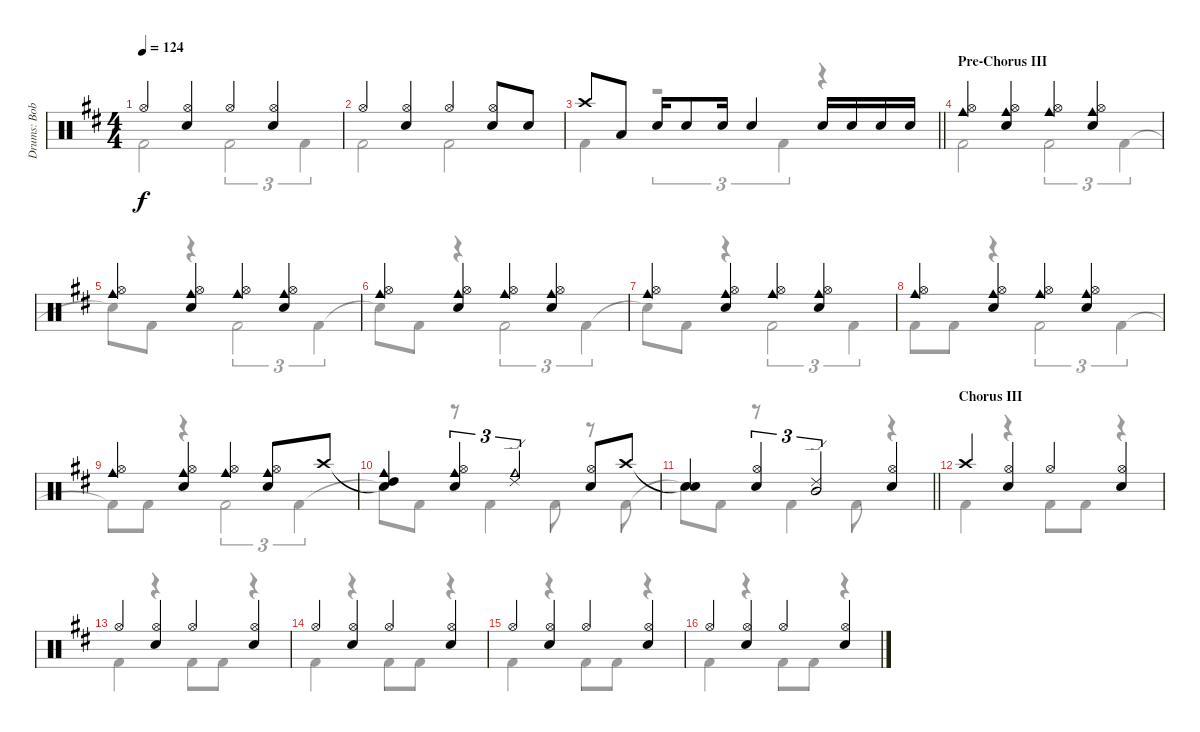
\track ("Drums: Bobby" "Drums: Bob") {instrument percussion}
\staff {score}
\articulation defaults
\voice
\ts (4 4)
\tempo 124
\clef neutral
\ks d "Hi-Hat (open)".4{dy f}
("Hi-Hat (open)" "Snare (hit) 2").4 "Hi-Hat (open)".4 ("Hi-Hat (open)" "Snare (hit) 2").4 |
"Hi-Hat (open)".4 ("Hi-Hat (open)" "Snare (hit) 2").4 "Hi-Hat (open)".4 ("Hi-Hat (open)" "Snare (hit) 2").8 "Snare (hit) 2".8 |
\barLineRight lightlight "Crash high (hit)".8 "Low Tom (hit)".8 "Snare (hit) 2".16 "Snare (hit) 2".8 "Snare (hit) 2".16 "Snare (hit) 2".4 "Snare (hit) 2".16 "Snare (hit) 2".16 "Snare (hit) 2".16 "Snare (hit) 2".16
|
\section ("" "Pre-Chorus III")
("Hi-Hat (open)" "Cowbell medium (hit)").4 ("Hi-Hat (open)" "Snare (hit) 2" "Cowbell medium (hit)").4 ("Hi-Hat (open)" "Cowbell medium (hit)").4 ("Hi-Hat (open)" "Snare (hit) 2" "Cowbell medium (hit)").4 |
("Hi-Hat (open)" "Cowbell medium (hit)").4 ("Hi-Hat (open)" "Snare (hit) 2" "Cowbell medium (hit)").4 ("Hi-Hat (open)" "Cowbell medium (hit)").4 ("Hi-Hat (open)" "Snare (hit) 2" "Cowbell medium (hit)").4 |
("Hi-Hat (open)" "Cowbell medium (hit)").4 ("Hi-Hat (open)" "Snare (hit) 2" "Cowbell medium (hit)").4 ("Hi-Hat (open)" "Cowbell medium (hit)").4 ("Hi-Hat (open)" "Snare (hit) 2" "Cowbell medium (hit)").4 |
("Hi-Hat (open)" "Cowbell medium (hit)").4 ("Hi-Hat (open)" "Snare (hit) 2" "Cowbell medium (hit)").4 ("Hi-Hat (open)" "Cowbell medium (hit)").4 ("Hi-Hat (open)" "Snare (hit) 2" "Cowbell medium (hit)").4 |
("Hi-Hat (open)" "Cowbell medium (hit)").4 ("Hi-Hat (open)" "Snare (hit) 2" "Cowbell medium (hit)").4 ("Hi-Hat (open)" "Cowbell medium (hit)").4 ("Hi-Hat (open)" "Snare (hit) 2" "Cowbell medium (hit)").4 |
("Hi-Hat (open)" "Cowbell medium (hit)").4 ("Hi-Hat (open)" "Snare (hit) 2" "Cowbell medium (hit)").4 ("Hi-Hat (open)" "Cowbell medium (hit)").4 ("Hi-Hat (open)" "Snare (hit) 2" "Cowbell medium (hit)").8 "Crash high (hit)".8 |
("Snare (hit)"{t} "High Tom (hit)" "Cowbell medium (hit)").4 ("Hi-Hat (open)" "Snare (hit) 2" "Cowbell medium (hit)").4{tu (3 2)} ("Ride (edge) 2" "Cowbell medium (hit)").2{tu (3 2)} ("Hi-Hat (open)" "Snare (hit) 2").8 "Crash high (hit)".8 |
\barLineRight lightlight
("Snare (hit)"{t} "Snare (hit) 2").4 ("Hi-Hat (open)" "Snare (hit) 2").4{tu (3 2)} ("Ride (edge) 2" "Mid Tom (hit)").2{tu (3 2)} ("Hi-Hat (open)" "Snare (hit) 2").4 |
\section ("" "Chorus III")
"Crash high (hit)".4 ("Hi-Hat (open)" "Snare (hit) 2").4 "Hi-Hat (open)".4 ("Hi-Hat (open)" "Snare (hit) 2").4 |
"Hi-Hat (open)".4 ("Hi-Hat (open)" "Snare (hit) 2").4 "Hi-Hat (open)".4 ("Hi-Hat (open)" "Snare (hit) 2").4 |
"Hi-Hat (open)".4 ("Hi-Hat (open)" "Snare (hit) 2").4 "Hi-Hat (open)".4 ("Hi-Hat (open)" "Snare (hit) 2").4 |
"Hi-Hat (open)".4 ("Hi-Hat (open)" "Snare (hit) 2").4 "Hi-Hat (open)".4 ("Hi-Hat (open)" "Snare (hit) 2").4 |
"Hi-Hat (open)".4 ("Hi-Hat (open)" "Snare (hit) 2").4 "Hi-Hat (open)".4 ("Hi-Hat (open)" "Snare (hit) 2").4
\voice
\clef neutral
\ottava regular
\simile none
\ks d "Kick (hit) 2".2{dy f} "Kick (hit) 2".2{tu (3 2)} "Kick (hit) 2".4{tu (3 2)}
|
"Kick (hit) 2".2 "Kick (hit) 2".2 |
\barLineRight lightlight "Kick (hit) 2".4
r.2{tu (3 2)} "Kick (hit) 2".4{tu (3 2)} r.4 |
"Kick (hit) 2".2 "Kick (hit) 2".2{tu (3 2)} "Kick (hit) 2".4{tu (3 2)} |
"Snare (hit)"{t}.8 "Kick (hit) 2".8 r.4 "Kick (hit) 2".2{tu (3 2)} "Kick (hit) 2".4{tu (3 2)} |
"Snare (hit)"{t}.8 "Kick (hit) 2".8 r.4 "Kick (hit) 2".2{tu (3 2)} "Kick (hit) 2".4{tu (3 2)} |
"Snare (hit)"{t}.8 "Kick (hit) 2".8 r.4 "Kick (hit) 2".2{tu (3 2)} "Kick (hit) 2".4{tu (3 2)} |
"Kick (hit) 2".8 "Kick (hit) 2".8 r.4 "Kick (hit) 2".2{tu (3 2)} "Kick (hit) 2".4{tu (3 2)} |
"Kick (hit) 2"{t}.8 "Kick (hit) 2".8 r.4 "Kick (hit) 2".2{tu (3 2)} "Kick (hit) 2".4{tu (3 2)} |
"Snare (hit)"{t}.8 "Kick (hit) 2".8 r.8 "Kick (hit) 2".4 "Kick (hit) 2".8 r.8 "Kick (hit) 2".8 |
\barLineRight lightlight "Snare (hit)"{t}.8 "Kick (hit) 2".8
r.8 "Kick (hit) 2".4 "Kick (hit) 2".8 r.4 |
"Kick (hit) 2".4 r.4 "Kick (hit) 2".8 "Kick (hit) 2".8 r.4 |
"Kick (hit) 2".4 r.4 "Kick (hit) 2".8 "Kick (hit) 2".8 r.4 |
"Kick (hit) 2".4 r.4 "Kick (hit) 2".8 "Kick (hit) 2".8 r.4 |
"Kick (hit) 2".4 r.4 "Kick (hit) 2".8 "Kick (hit) 2".8 r.4 |
"Kick (hit) 2".4 r.4 "Kick (hit) 2".8 "Kick (hit) 2".8 r.4
